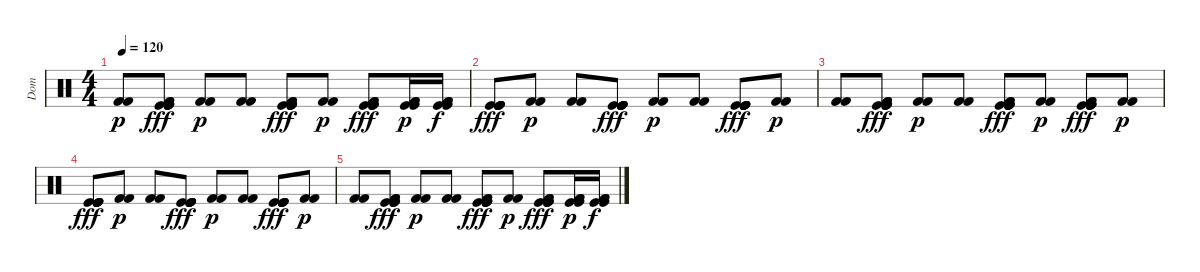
\track ("Dom" "Dom") {instrument percussion}
\staff {score}
\articulation defaults
\ts (4 4)
\tempo 120
\clef neutral
\ks c
("Kick (hit) 2" "Kick (hit) 2").8{dy p} ("Kick (hit)" "Kick (hit)" "Kick (hit) 2" "Kick (hit) 2" "Kick (hit)" "Kick (hit)").8{dy fff} ("Kick (hit) 2" "Kick (hit) 2").8{dy p} ("Kick (hit) 2" "Kick (hit) 2").8 ("Kick (hit)" "Kick (hit)" "Kick (hit) 2" "Kick (hit) 2" "Kick (hit)" "Kick (hit)").8{dy fff} ("Kick (hit) 2" "Kick (hit) 2").8{dy p} ("Kick (hit)" "Kick (hit)" "Kick (hit) 2" "Kick (hit) 2" "Kick (hit)" "Kick (hit)").8{dy fff} ("Kick (hit)" "Kick (hit) 2" "Kick (hit) 2" "Kick (hit)").16{dy p} ("Kick (hit)" "Kick (hit) 2" "Kick (hit) 2" "Kick (hit)").16{dy f} |
("Kick (hit)" "Kick (hit)" "Kick (hit)" "Kick (hit)" "Kick (hit)" "Kick (hit)").8{dy fff} ("Kick (hit) 2" "Kick (hit) 2").8{dy p} ("Kick (hit) 2" "Kick (hit) 2").8 ("Kick (hit)" "Kick (hit)" "Kick (hit)" "Kick (hit)" "Kick (hit)" "Kick (hit)").8{dy fff} ("Kick (hit) 2" "Kick (hit) 2").8{dy p} ("Kick (hit) 2" "Kick (hit) 2").8 ("Kick (hit)" "Kick (hit)" "Kick (hit)" "Kick (hit)" "Kick (hit)" "Kick (hit)").8{dy fff} ("Kick (hit) 2" "Kick (hit) 2").8{dy p} |
("Kick (hit) 2" "Kick (hit) 2").8 ("Kick (hit)" "Kick (hit)" "Kick (hit) 2" "Kick (hit) 2" "Kick (hit)" "Kick (hit)").8{dy fff} ("Kick (hit) 2" "Kick (hit) 2").8{dy p} ("Kick (hit) 2" "Kick (hit) 2").8 ("Kick (hit)" "Kick (hit)" "Kick (hit) 2" "Kick (hit) 2" "Kick (hit)" "Kick (hit)").8{dy fff} ("Kick (hit) 2" "Kick (hit) 2").8{dy p} ("Kick (hit)" "Kick (hit)" "Kick (hit) 2" "Kick (hit) 2" "Kick (hit)" "Kick (hit)").8{dy fff} ("Kick (hit) 2" "Kick (hit) 2").8{dy p} |
("Kick (hit)" "Kick (hit)" "Kick (hit)" "Kick (hit)" "Kick (hit)" "Kick (hit)").8{dy fff} ("Kick (hit) 2" "Kick (hit) 2").8{dy p} ("Kick (hit) 2" "Kick (hit) 2").8 ("Kick (hit)" "Kick (hit)" "Kick (hit)" "Kick (hit)" "Kick (hit)" "Kick (hit)").8{dy fff} ("Kick (hit) 2" "Kick (hit) 2").8{dy p} ("Kick (hit) 2" "Kick (hit) 2").8 ("Kick (hit)" "Kick (hit)" "Kick (hit)" "Kick (hit)" "Kick (hit)" "Kick (hit)").8{dy fff} ("Kick (hit) 2" "Kick (hit) 2").8{dy p} |
("Kick (hit) 2" "Kick (hit) 2").8 ("Kick (hit)" "Kick (hit)" "Kick (hit) 2" "Kick (hit) 2" "Kick (hit)" "Kick (hit)").8{dy fff} ("Kick (hit) 2" "Kick (hit) 2").8{dy p} ("Kick (hit) 2" "Kick (hit) 2").8 ("Kick (hit)" "Kick (hit)" "Kick (hit) 2" "Kick (hit) 2" "Kick (hit)" "Kick (hit)").8{dy fff} ("Kick (hit) 2" "Kick (hit) 2").8{dy p} ("Kick (hit)" "Kick (hit)" "Kick (hit) 2" "Kick (hit) 2" "Kick (hit)" "Kick (hit)").8{dy fff} ("Kick (hit)" "Kick (hit) 2" "Kick (hit) 2" "Kick (hit)").16{dy p} ("Kick (hit)" "Kick (hit) 2" "Kick (hit) 2" "Kick (hit)").16{dy f}
